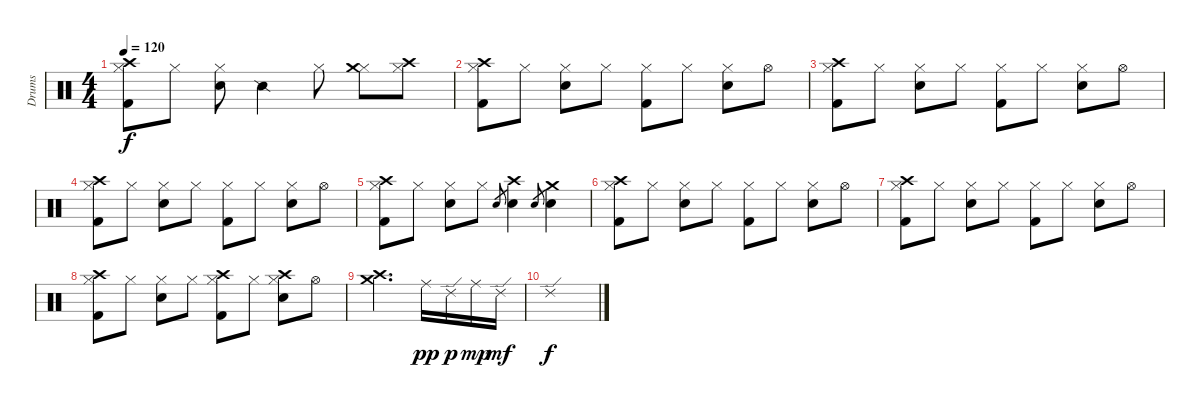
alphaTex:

\track ("Drums" "Drums") {instrument percussion}
\staff {score}
\articulation defaults
\ts (4 4)
\tempo 120
\clef neutral
\ks c
("Kick (hit) 2" "Hi-Hat (closed)" "Crash high (hit)").8{dy f} "Hi-Hat (closed)".8 ("Electric Snare (hit)" "Hi-Hat (closed)").8 "Snare (side stick) 2".4 "Hi-Hat (closed)".8 ("Hi-Hat (closed)" "Crash medium (hit)").8 ("Hi-Hat (closed)" "Crash high (hit)").8 |
("Kick (hit) 2" "Hi-Hat (closed)" "Crash high (hit)").8 "Hi-Hat (closed)".8 ("Electric Snare (hit)" "Hi-Hat (closed)").8 "Hi-Hat (closed)".8 ("Kick (hit) 2" "Hi-Hat (closed)").8 "Hi-Hat (closed)".8 ("Electric Snare (hit)" "Hi-Hat (closed)").8 "Hi-Hat (open)".8 |
("Kick (hit) 2" "Hi-Hat (closed)" "Crash high (hit)").8 "Hi-Hat (closed)".8 ("Electric Snare (hit)" "Hi-Hat (closed)").8 "Hi-Hat (closed)".8 ("Kick (hit) 2" "Hi-Hat (closed)").8 "Hi-Hat (closed)".8 ("Electric Snare (hit)" "Hi-Hat (closed)").8 "Hi-Hat (open)".8 |
("Kick (hit) 2" "Hi-Hat (closed)" "Crash high (hit)").8 "Hi-Hat (closed)".8 ("Electric Snare (hit)" "Hi-Hat (closed)").8 "Hi-Hat (closed)".8 ("Kick (hit) 2" "Hi-Hat (closed)").8 "Hi-Hat (closed)".8 ("Electric Snare (hit)" "Hi-Hat (closed)").8 "Hi-Hat (open)".8 |
("Kick (hit) 2" "Hi-Hat (closed)" "Crash high (hit)").8 "Hi-Hat (closed)".8 ("Electric Snare (hit)" "Hi-Hat (closed)").8 "Hi-Hat (closed)".8 "Electric Snare (hit)"{sl}.8{gr} ("Crash high (hit)" "Electric Snare (hit)").4 "Electric Snare (hit)"{sl}.8{gr} ("Crash medium (hit)" "Electric Snare (hit)").4 |
("Kick (hit) 2" "Hi-Hat (closed)" "Crash high (hit)").8 "Hi-Hat (closed)".8 ("Electric Snare (hit)" "Hi-Hat (closed)").8 "Hi-Hat (closed)".8 ("Kick (hit) 2" "Hi-Hat (closed)").8 "Hi-Hat (closed)".8 ("Electric Snare (hit)" "Hi-Hat (closed)").8 "Hi-Hat (open)".8 |
("Kick (hit) 2" "Hi-Hat (closed)" "Crash high (hit)").8 "Hi-Hat (closed)".8 ("Electric Snare (hit)" "Hi-Hat (closed)").8 "Hi-Hat (closed)".8 ("Kick (hit) 2" "Hi-Hat (closed)").8 "Hi-Hat (closed)".8 ("Electric Snare (hit)" "Hi-Hat (closed)").8 "Hi-Hat (open)".8 |
("Kick (hit) 2" "Hi-Hat (closed)" "Crash high (hit)").8 "Hi-Hat (closed)".8 ("Electric Snare (hit)" "Hi-Hat (closed)").8 "Hi-Hat (closed)".8 ("Kick (hit) 2" "Hi-Hat (closed)" "Crash high (hit)").8 "Hi-Hat (closed)".8 ("Electric Snare (hit)" "Hi-Hat (closed)" "Crash high (hit)").8 "Hi-Hat (open)".8 |
("Crash medium (hit)" "Crash high (hit)").2{d} "Ride (middle)".16{dy pp} "Ride (edge) 2".16{dy p} "Ride (middle)".16{dy mp} "Ride (edge) 2".16{dy mf} |
"Ride (edge) 2".1{dy f}
